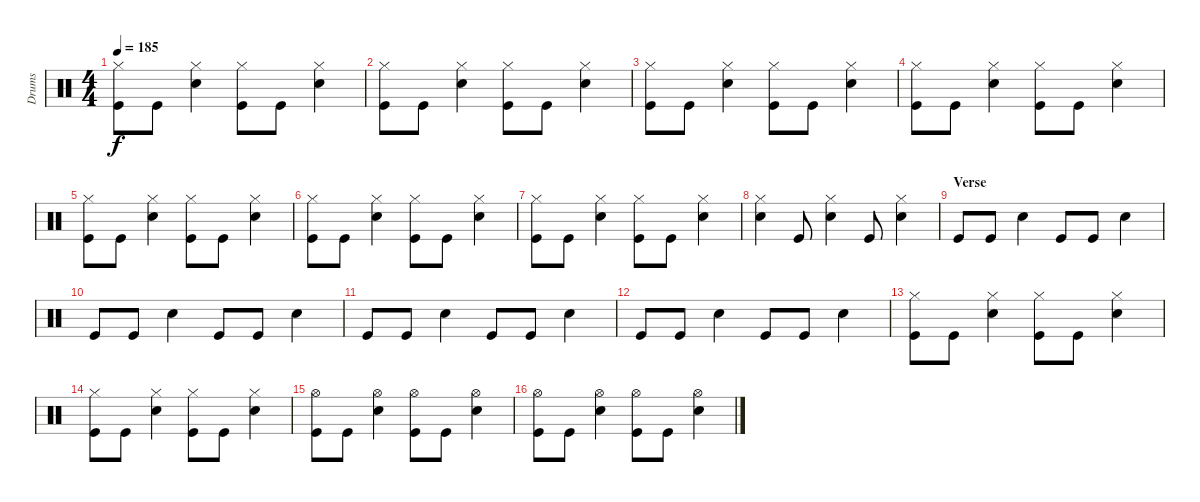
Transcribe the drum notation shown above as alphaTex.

\track ("Drums" "Drums") {instrument percussion}
\staff {score}
\articulation defaults
\ts (4 4)
\tempo 185
\clef neutral
\ks c
("Kick (hit)" "Hi-Hat (closed)").8{dy f} "Kick (hit)".8 ("Electric Snare (hit)" "Hi-Hat (closed)").4 ("Kick (hit)" "Hi-Hat (closed)").8 "Kick (hit)".8 ("Electric Snare (hit)" "Hi-Hat (closed)").4 |
("Kick (hit)" "Hi-Hat (closed)").8 "Kick (hit)".8 ("Electric Snare (hit)" "Hi-Hat (closed)").4 ("Kick (hit)" "Hi-Hat (closed)").8 "Kick (hit)".8 ("Electric Snare (hit)" "Hi-Hat (closed)").4 |
("Kick (hit)" "Hi-Hat (closed)").8 "Kick (hit)".8 ("Electric Snare (hit)" "Hi-Hat (closed)").4 ("Kick (hit)" "Hi-Hat (closed)").8 "Kick (hit)".8 ("Electric Snare (hit)" "Hi-Hat (closed)").4 |
("Kick (hit)" "Hi-Hat (closed)").8 "Kick (hit)".8 ("Electric Snare (hit)" "Hi-Hat (closed)").4 ("Kick (hit)" "Hi-Hat (closed)").8 "Kick (hit)".8 ("Electric Snare (hit)" "Hi-Hat (closed)").4 |
("Kick (hit)" "Hi-Hat (closed)").8 "Kick (hit)".8 ("Electric Snare (hit)" "Hi-Hat (closed)").4 ("Kick (hit)" "Hi-Hat (closed)").8 "Kick (hit)".8 ("Electric Snare (hit)" "Hi-Hat (closed)").4 |
("Kick (hit)" "Hi-Hat (closed)").8 "Kick (hit)".8 ("Electric Snare (hit)" "Hi-Hat (closed)").4 ("Kick (hit)" "Hi-Hat (closed)").8 "Kick (hit)".8 ("Electric Snare (hit)" "Hi-Hat (closed)").4 |
("Kick (hit)" "Hi-Hat (closed)").8 "Kick (hit)".8 ("Electric Snare (hit)" "Hi-Hat (closed)").4 ("Kick (hit)" "Hi-Hat (closed)").8 "Kick (hit)".8 ("Electric Snare (hit)" "Hi-Hat (closed)").4 |
("Electric Snare (hit)" "Hi-Hat (closed)").4 "Kick (hit)".8 ("Electric Snare (hit)" "Hi-Hat (closed)").4 "Kick (hit)".8 ("Electric Snare (hit)" "Hi-Hat (closed)").4 |
\section ("" "Verse")
"Kick (hit)".8 "Kick (hit)".8 "Electric Snare (hit)".4 "Kick (hit)".8 "Kick (hit)".8 "Electric Snare (hit)".4 |
"Kick (hit)".8 "Kick (hit)".8 "Electric Snare (hit)".4 "Kick (hit)".8 "Kick (hit)".8 "Electric Snare (hit)".4 |
"Kick (hit)".8 "Kick (hit)".8 "Electric Snare (hit)".4 "Kick (hit)".8 "Kick (hit)".8 "Electric Snare (hit)".4 |
"Kick (hit)".8 "Kick (hit)".8 "Electric Snare (hit)".4 "Kick (hit)".8 "Kick (hit)".8 "Electric Snare (hit)".4 |
("Kick (hit)" "Hi-Hat (closed)").8 "Kick (hit)".8 ("Electric Snare (hit)" "Hi-Hat (closed)").4 ("Kick (hit)" "Hi-Hat (closed)").8 "Kick (hit)".8 ("Electric Snare (hit)" "Hi-Hat (closed)").4 |
("Kick (hit)" "Hi-Hat (closed)").8 "Kick (hit)".8 ("Electric Snare (hit)" "Hi-Hat (closed)").4 ("Kick (hit)" "Hi-Hat (closed)").8 "Kick (hit)".8 ("Electric Snare (hit)" "Hi-Hat (closed)").4 |
("Kick (hit)" "Hi-Hat (open)").8 "Kick (hit)".8 ("Electric Snare (hit)" "Hi-Hat (open)").4 ("Kick (hit)" "Hi-Hat (open)").8 "Kick (hit)".8 ("Electric Snare (hit)" "Hi-Hat (open)").4 |
("Kick (hit)" "Hi-Hat (open)").8 "Kick (hit)".8 ("Electric Snare (hit)" "Hi-Hat (open)").4 ("Kick (hit)" "Hi-Hat (open)").8 "Kick (hit)".8 ("Electric Snare (hit)" "Hi-Hat (open)").4
